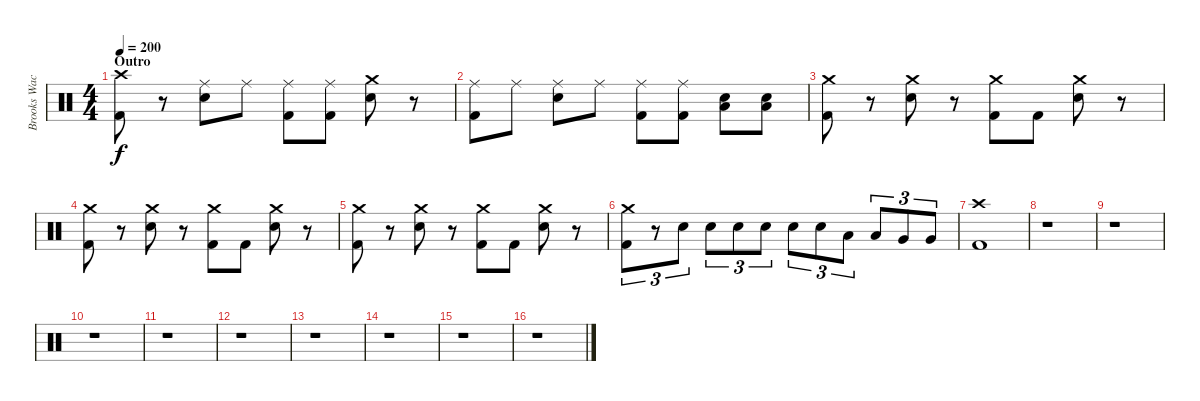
\track ("Brooks Wackerman" "Brooks Wac") {instrument percussion}
\staff {score}
\articulation defaults
\ts (4 4)
\section ("" "Outro")
\tempo 200
\clef neutral
\ks c
("Crash high (hit)" "Kick (hit) 2").8{dy f} r.8 ("Ride (middle)" "Electric Snare (hit)").8 "Ride (middle)".8 ("Ride (middle)" "Kick (hit) 2").8 ("Ride (middle)" "Kick (hit) 2").8 ("Crash medium (hit)" "Electric Snare (hit)").8 r.8 |
("Ride (middle)" "Kick (hit) 2").8 "Ride (middle)".8 ("Ride (middle)" "Electric Snare (hit)").8 "Ride (middle)".8 ("Ride (middle)" "Kick (hit) 2").8 ("Ride (middle)" "Kick (hit) 2").8 ("Low Tom (hit)" "Electric Snare (hit)").8 ("Low Tom (hit)" "Electric Snare (hit)").8 |
("Crash medium (hit)" "Kick (hit) 2").8 r.8 ("Crash medium (hit)" "Electric Snare (hit)").8 r.8 ("Crash medium (hit)" "Kick (hit) 2").8 "Kick (hit) 2".8 ("Crash medium (hit)" "Electric Snare (hit)").8 r.8 |
("Crash medium (hit)" "Kick (hit) 2").8 r.8 ("Crash medium (hit)" "Electric Snare (hit)").8 r.8 ("Crash medium (hit)" "Kick (hit) 2").8 "Kick (hit) 2".8 ("Crash medium (hit)" "Electric Snare (hit)").8 r.8 |
("Crash medium (hit)" "Kick (hit) 2").8 r.8 ("Crash medium (hit)" "Electric Snare (hit)").8 r.8 ("Crash medium (hit)" "Kick (hit) 2").8 "Kick (hit) 2".8 ("Crash medium (hit)" "Electric Snare (hit)").8 r.8 |
("Crash medium (hit)" "Kick (hit) 2").8{tu (3 2)} r.8{tu (3 2)} "Electric Snare (hit)".8{tu (3 2)} "Electric Snare (hit)".8{tu (3 2)} "Electric Snare (hit)".8{tu (3 2)} "Electric Snare (hit)".8{tu (3 2)} "Electric Snare (hit)".8{tu (3 2)} "Electric Snare (hit)".8{tu (3 2)} "Low Tom (hit)".8{tu (3 2)} "Low Tom (hit)".8{tu (3 2)} "Very Low Tom (hit)".8{tu (3 2)} "Very Low Tom (hit)".8{tu (3 2)} |
("Crash high (hit)" "Kick (hit) 2").1 |
r.1 |
r.1 |
r.1 |
r.1 |
r.1 |
r.1 |
r.1 |
r.1 |
r.1
